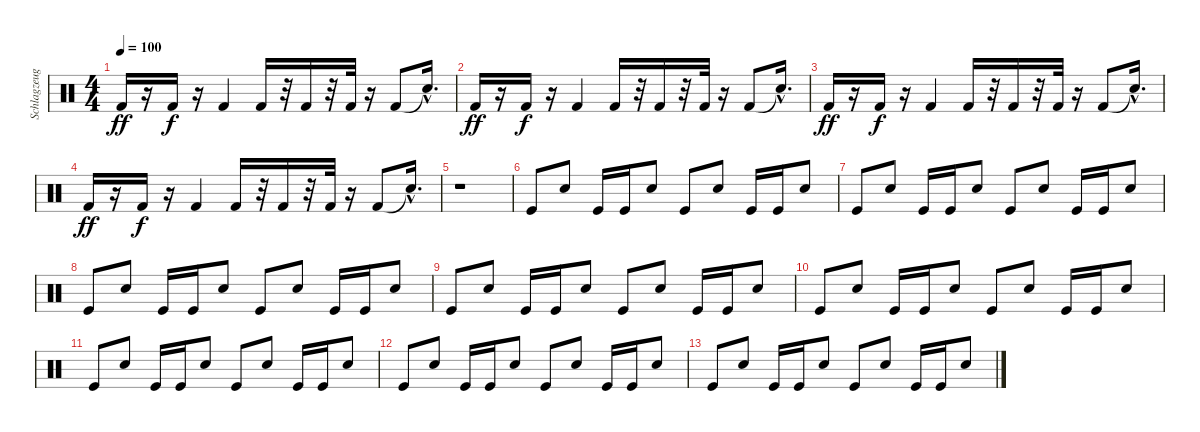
\track ("Schlagzeug" "Schlagzeug") {instrument percussion}
\staff {score}
\articulation defaults
\ts (4 4)
\tempo 100
\clef neutral
\ks c "Kick (hit) 2".16{dy ff}
r.16 "Kick (hit) 2".16{dy f} r.16 "Kick (hit) 2".4 "Kick (hit) 2".16 r.32 "Kick (hit) 2".16 r.32 "Kick (hit) 2".32 r.16 "Kick (hit) 2".8 "Snare (hit)"{hac t}.16{d} |
"Kick (hit) 2".16{dy ff} r.16 "Kick (hit) 2".16{dy f} r.16 "Kick (hit) 2".4 "Kick (hit) 2".16 r.32 "Kick (hit) 2".16 r.32 "Kick (hit) 2".32 r.16 "Kick (hit) 2".8 "Snare (hit)"{hac t}.16{d} |
"Kick (hit) 2".16{dy ff} r.16 "Kick (hit) 2".16{dy f} r.16 "Kick (hit) 2".4 "Kick (hit) 2".16 r.32 "Kick (hit) 2".16 r.32 "Kick (hit) 2".32 r.16 "Kick (hit) 2".8 "Snare (hit)"{hac t}.16{d} |
"Kick (hit) 2".16{dy ff} r.16 "Kick (hit) 2".16{dy f} r.16 "Kick (hit) 2".4 "Kick (hit) 2".16 r.32 "Kick (hit) 2".16 r.32 "Kick (hit) 2".32 r.16 "Kick (hit) 2".8 "Snare (hit)"{hac t}.16{d} |
r.1 |
"Kick (hit)".8 "Snare (hit) 2".8 "Kick (hit)".16 "Kick (hit)".16 "Snare (hit) 2".8 "Kick (hit)".8 "Snare (hit) 2".8 "Kick (hit)".16 "Kick (hit)".16 "Snare (hit) 2".8 |
"Kick (hit)".8 "Snare (hit) 2".8 "Kick (hit)".16 "Kick (hit)".16 "Snare (hit) 2".8 "Kick (hit)".8 "Snare (hit) 2".8 "Kick (hit)".16 "Kick (hit)".16 "Snare (hit) 2".8 |
"Kick (hit)".8 "Snare (hit) 2".8 "Kick (hit)".16 "Kick (hit)".16 "Snare (hit) 2".8 "Kick (hit)".8 "Snare (hit) 2".8 "Kick (hit)".16 "Kick (hit)".16 "Snare (hit) 2".8 |
"Kick (hit)".8 "Snare (hit) 2".8 "Kick (hit)".16 "Kick (hit)".16 "Snare (hit) 2".8 "Kick (hit)".8 "Snare (hit) 2".8 "Kick (hit)".16 "Kick (hit)".16 "Snare (hit) 2".8 |
"Kick (hit)".8 "Snare (hit) 2".8 "Kick (hit)".16 "Kick (hit)".16 "Snare (hit) 2".8 "Kick (hit)".8 "Snare (hit) 2".8 "Kick (hit)".16 "Kick (hit)".16 "Snare (hit) 2".8 |
"Kick (hit)".8 "Snare (hit) 2".8 "Kick (hit)".16 "Kick (hit)".16 "Snare (hit) 2".8 "Kick (hit)".8 "Snare (hit) 2".8 "Kick (hit)".16 "Kick (hit)".16 "Snare (hit) 2".8 |
"Kick (hit)".8 "Snare (hit) 2".8 "Kick (hit)".16 "Kick (hit)".16 "Snare (hit) 2".8 "Kick (hit)".8 "Snare (hit) 2".8 "Kick (hit)".16 "Kick (hit)".16 "Snare (hit) 2".8 |
"Kick (hit)".8 "Snare (hit) 2".8 "Kick (hit)".16 "Kick (hit)".16 "Snare (hit) 2".8 "Kick (hit)".8 "Snare (hit) 2".8 "Kick (hit)".16 "Kick (hit)".16 "Snare (hit) 2".8
